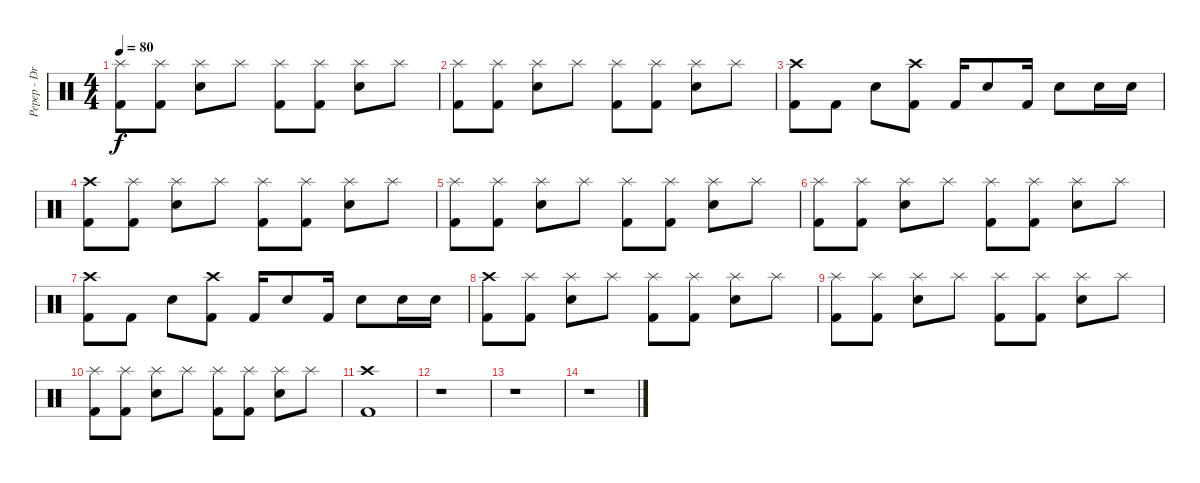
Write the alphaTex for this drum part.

\track ("Pepep - Drum" "Pepep - Dr") {instrument percussion}
\staff {score}
\articulation defaults
\ts (4 4)
\tempo 80
\clef neutral
\ks c
("Splash (hit)" "Kick (hit) 2").8{dy f} ("Splash (hit)" "Kick (hit) 2").8 ("Splash (hit)" "Electric Snare (hit)").8 "Splash (hit)".8 ("Splash (hit)" "Kick (hit) 2").8 ("Splash (hit)" "Kick (hit) 2").8 ("Splash (hit)" "Electric Snare (hit)").8 "Splash (hit)".8 |
("Splash (hit)" "Kick (hit) 2").8 ("Splash (hit)" "Kick (hit) 2").8 ("Splash (hit)" "Electric Snare (hit)").8 "Splash (hit)".8 ("Splash (hit)" "Kick (hit) 2").8 ("Splash (hit)" "Kick (hit) 2").8 ("Splash (hit)" "Electric Snare (hit)").8 "Splash (hit)".8 |
("Crash high (hit)" "Kick (hit) 2").8 "Kick (hit) 2".8 "Electric Snare (hit)".8 ("Crash high (hit)" "Kick (hit) 2").8 "Kick (hit) 2".16 "Electric Snare (hit)".8 "Kick (hit) 2".16 "Electric Snare (hit)".8 "Electric Snare (hit)".16 "Electric Snare (hit)".16 |
("Crash high (hit)" "Kick (hit) 2").8 ("Splash (hit)" "Kick (hit) 2").8 ("Splash (hit)" "Electric Snare (hit)").8 "Splash (hit)".8 ("Splash (hit)" "Kick (hit) 2").8 ("Splash (hit)" "Kick (hit) 2").8 ("Splash (hit)" "Electric Snare (hit)").8 "Splash (hit)".8 |
("Splash (hit)" "Kick (hit) 2").8 ("Splash (hit)" "Kick (hit) 2").8 ("Splash (hit)" "Electric Snare (hit)").8 "Splash (hit)".8 ("Splash (hit)" "Kick (hit) 2").8 ("Splash (hit)" "Kick (hit) 2").8 ("Splash (hit)" "Electric Snare (hit)").8 "Splash (hit)".8 |
("Splash (hit)" "Kick (hit) 2").8 ("Splash (hit)" "Kick (hit) 2").8 ("Splash (hit)" "Electric Snare (hit)").8 "Splash (hit)".8 ("Splash (hit)" "Kick (hit) 2").8 ("Splash (hit)" "Kick (hit) 2").8 ("Splash (hit)" "Electric Snare (hit)").8 "Splash (hit)".8 |
("Crash high (hit)" "Kick (hit) 2").8 "Kick (hit) 2".8 "Electric Snare (hit)".8 ("Crash high (hit)" "Kick (hit) 2").8 "Kick (hit) 2".16 "Electric Snare (hit)".8 "Kick (hit) 2".16 "Electric Snare (hit)".8 "Electric Snare (hit)".16 "Electric Snare (hit)".16 |
("Crash high (hit)" "Kick (hit) 2").8 ("Splash (hit)" "Kick (hit) 2").8 ("Splash (hit)" "Electric Snare (hit)").8 "Splash (hit)".8 ("Splash (hit)" "Kick (hit) 2").8 ("Splash (hit)" "Kick (hit) 2").8 ("Splash (hit)" "Electric Snare (hit)").8 "Splash (hit)".8 |
("Splash (hit)" "Kick (hit) 2").8 ("Splash (hit)" "Kick (hit) 2").8 ("Splash (hit)" "Electric Snare (hit)").8 "Splash (hit)".8 ("Splash (hit)" "Kick (hit) 2").8 ("Splash (hit)" "Kick (hit) 2").8 ("Splash (hit)" "Electric Snare (hit)").8 "Splash (hit)".8 |
("Splash (hit)" "Kick (hit) 2").8 ("Splash (hit)" "Kick (hit) 2").8 ("Splash (hit)" "Electric Snare (hit)").8 "Splash (hit)".8 ("Splash (hit)" "Kick (hit) 2").8 ("Splash (hit)" "Kick (hit) 2").8 ("Splash (hit)" "Electric Snare (hit)").8 "Splash (hit)".8 |
("Crash high (hit)" "Kick (hit) 2").1 |
r.1 |
r.1 |
r.1
